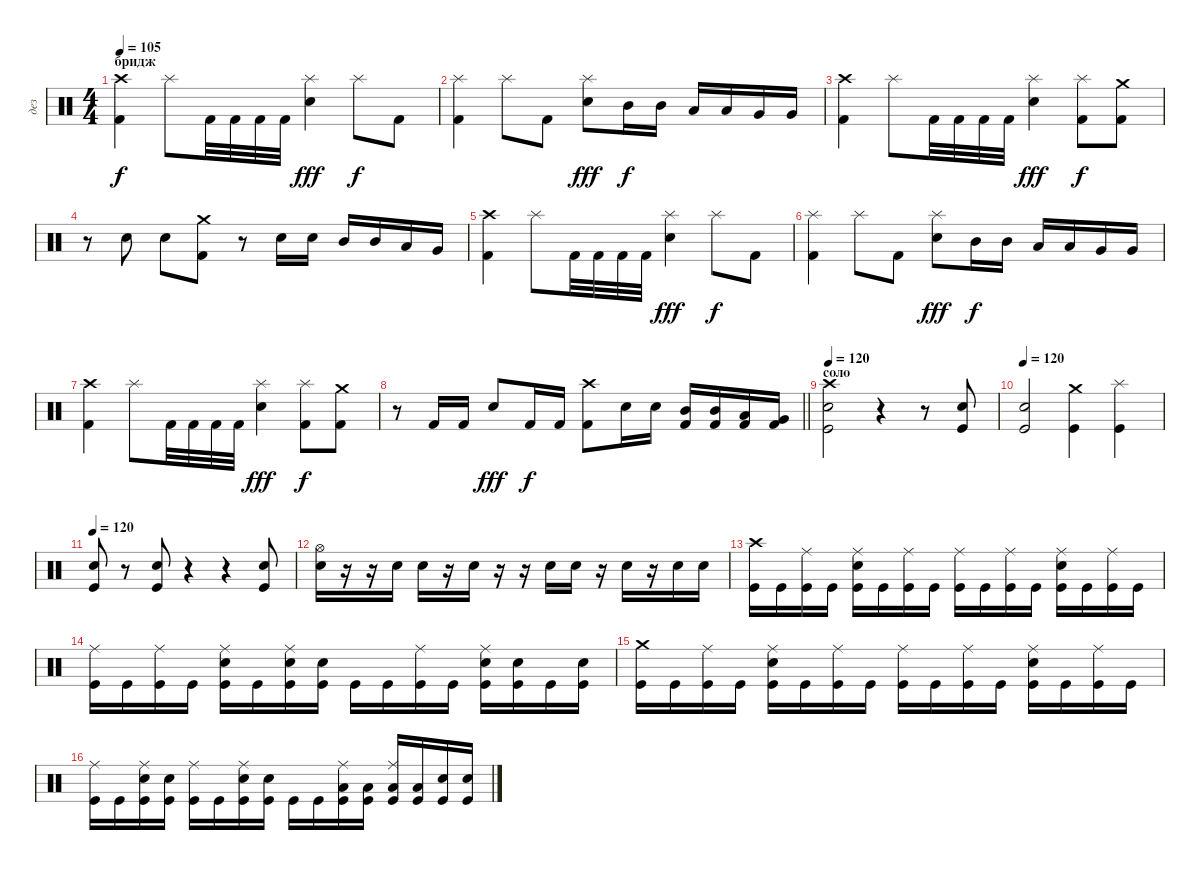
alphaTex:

\track ("дез" "дез") {instrument percussion}
\staff {score}
\articulation defaults
\ts (4 4)
\section ("" "бридж")
\tempo 105
\clef neutral
\ks c
("Crash high (hit)" "Kick (hit) 2").4{dy f} "Splash (hit)".8 "Kick (hit) 2".32 "Kick (hit) 2".32 "Kick (hit) 2".32 "Kick (hit) 2".32 ("Splash (hit)" "Snare (hit) 2").4{dy fff} "Splash (hit)".8{dy f} "Kick (hit) 2".8 |
("Splash (hit)" "Kick (hit) 2").4 "Splash (hit)".8 "Kick (hit) 2".8 ("Splash (hit)" "Snare (hit) 2").8{dy fff} "Mid Tom (hit)".16{dy f} "Mid Tom (hit)".16 "Low Tom (hit)".16 "Low Tom (hit)".16 "Very Low Tom (hit)".16 "Very Low Tom (hit)".16 |
("Crash high (hit)" "Kick (hit) 2").4 "Splash (hit)".8 "Kick (hit) 2".32 "Kick (hit) 2".32 "Kick (hit) 2".32 "Kick (hit) 2".32 ("Splash (hit)" "Snare (hit) 2").4{dy fff} ("Splash (hit)" "Kick (hit) 2").8{dy f} ("Crash medium (hit)" "Kick (hit) 2").8 |
r.8 "Snare (hit) 2".8 "Snare (hit) 2".8 ("Crash medium (hit)" "Kick (hit) 2").8 r.8 "Snare (hit) 2".16 "Snare (hit) 2".16 "Mid Tom (hit)".16 "Mid Tom (hit)".16 "Low Tom (hit)".16 "Very Low Tom (hit)".16 |
("Crash high (hit)" "Kick (hit) 2").4 "Splash (hit)".8 "Kick (hit) 2".32 "Kick (hit) 2".32 "Kick (hit) 2".32 "Kick (hit) 2".32 ("Splash (hit)" "Snare (hit) 2").4{dy fff} "Splash (hit)".8{dy f} "Kick (hit) 2".8 |
("Splash (hit)" "Kick (hit) 2").4 "Splash (hit)".8 "Kick (hit) 2".8 ("Splash (hit)" "Snare (hit) 2").8{dy fff} "Mid Tom (hit)".16{dy f} "Mid Tom (hit)".16 "Low Tom (hit)".16 "Low Tom (hit)".16 "Very Low Tom (hit)".16 "Very Low Tom (hit)".16 |
("Crash high (hit)" "Kick (hit) 2").4 "Splash (hit)".8 "Kick (hit) 2".32 "Kick (hit) 2".32 "Kick (hit) 2".32 "Kick (hit) 2".32 ("Splash (hit)" "Snare (hit) 2").4{dy fff} ("Splash (hit)" "Kick (hit) 2").8{dy f} ("Crash medium (hit)" "Kick (hit) 2").8 |
\barLineRight lightlight
r.8 "Kick (hit) 2".16 "Kick (hit) 2".16 "Snare (hit) 2".8{dy fff} "Kick (hit) 2".16{dy f} "Kick (hit) 2".16 ("Crash high (hit)" "Kick (hit) 2").8 "Snare (hit) 2".16 "Snare (hit) 2".16 ("Mid Tom (hit)" "Kick (hit) 2").16 ("Mid Tom (hit)" "Kick (hit) 2").16 ("Low Tom (hit)" "Kick (hit) 2").16 ("Very Low Tom (hit)" "Kick (hit) 2").16 |
\section ("" "соло")
\tempo 120
("Crash high (hit)" "Electric Snare (hit)" "Kick (hit)").2 r.4 r.8 ("Electric Snare (hit)" "Kick (hit)").8 |
\tempo 120
("Electric Snare (hit)" "Kick (hit)").2 ("Crash medium (hit)" "Kick (hit)").4 ("Splash (hit)" "Kick (hit)").4 |
\tempo 120
("Electric Snare (hit)" "Kick (hit)").8 r.8 ("Electric Snare (hit)" "Kick (hit)").8 r.4 r.4 ("Electric Snare (hit)" "Kick (hit)").8 |
("Electric Snare (hit)" "Hi-Hat (open)").16 r.16 r.16 "Electric Snare (hit)".16 "Electric Snare (hit)".16 r.16 "Electric Snare (hit)".16 r.16 r.16 "Electric Snare (hit)".16 "Electric Snare (hit)".16 r.16 "Electric Snare (hit)".16 r.16 "Electric Snare (hit)".16 "Electric Snare (hit)".16 |
("Crash high (hit)" "Kick (hit)").16 "Kick (hit)".16 ("Ride (middle)" "Kick (hit)").16 "Kick (hit)".16 ("Ride (middle)" "Electric Snare (hit)" "Kick (hit)").16 "Kick (hit)".16 ("Ride (middle)" "Kick (hit)").16 "Kick (hit)".16 ("Ride (middle)" "Kick (hit)").16 "Kick (hit)".16 ("Ride (middle)" "Kick (hit)").16 "Kick (hit)".16 ("Ride (middle)" "Electric Snare (hit)" "Kick (hit)").16 "Kick (hit)".16 ("Ride (middle)" "Kick (hit)").16 "Kick (hit)".16 |
("Ride (middle)" "Kick (hit)").16 "Kick (hit)".16 ("Ride (middle)" "Kick (hit)").16 "Kick (hit)".16 ("Ride (middle)" "Electric Snare (hit)" "Kick (hit)").16 "Kick (hit)".16 ("Ride (middle)" "Electric Snare (hit)" "Kick (hit)").16 ("Electric Snare (hit)" "Kick (hit)").16 "Kick (hit)".16 "Kick (hit)".16 ("Ride (middle)" "Kick (hit)").16 "Kick (hit)".16 ("Ride (middle)" "Electric Snare (hit)" "Kick (hit)").16 ("Electric Snare (hit)" "Kick (hit)").16 "Kick (hit)".16 ("Electric Snare (hit)" "Kick (hit)").16 |
("Crash medium (hit)" "Kick (hit)").16 "Kick (hit)".16 ("Ride (middle)" "Kick (hit)").16 "Kick (hit)".16 ("Ride (middle)" "Electric Snare (hit)" "Kick (hit)").16 "Kick (hit)".16 ("Ride (middle)" "Kick (hit)").16 "Kick (hit)".16 ("Ride (middle)" "Kick (hit)").16 "Kick (hit)".16 ("Ride (middle)" "Kick (hit)").16 "Kick (hit)".16 ("Ride (middle)" "Electric Snare (hit)" "Kick (hit)").16 "Kick (hit)".16 ("Ride (middle)" "Kick (hit)").16 "Kick (hit)".16 |
("Ride (middle)" "Kick (hit)").16 "Kick (hit)".16 ("Ride (middle)" "Electric Snare (hit)" "Kick (hit)").16 ("Electric Snare (hit)" "Kick (hit)").16 ("Ride (middle)" "Kick (hit)").16 "Kick (hit)".16 ("Ride (middle)" "Electric Snare (hit)" "Kick (hit)").16 ("Electric Snare (hit)" "Kick (hit)").16 "Kick (hit)".16 "Kick (hit)".16 ("Ride (middle)" "Low Tom (hit)" "Kick (hit)").16 ("Low Tom (hit)" "Kick (hit)").16 ("Ride (middle)" "Low Floor Tom (hit)" "Kick (hit)").16 ("Low Floor Tom (hit)" "Kick (hit)").16 ("Electric Snare (hit)" "Kick (hit)").16 ("Electric Snare (hit)" "Kick (hit)").16
